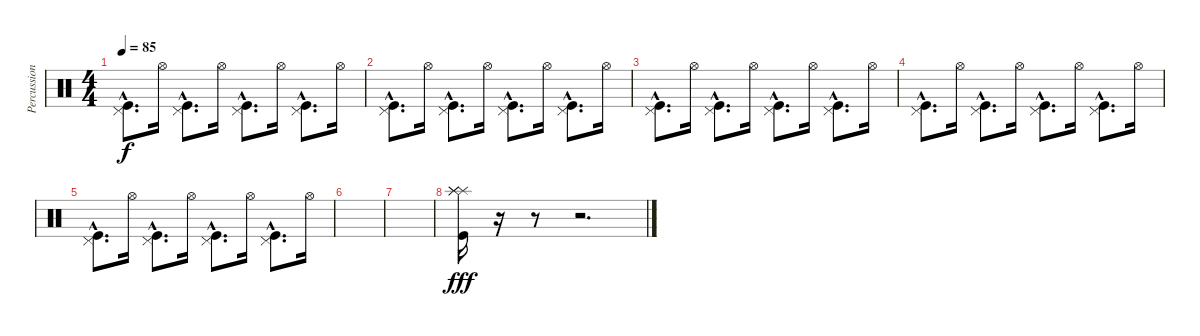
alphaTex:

\track ("Percussions" "Percussion") {instrument percussion}
\staff {score}
\articulation defaults
\ts (4 4)
\tempo 85
\clef neutral
\ks c
("Pedal Hi-Hat (hit)"{hac} "Kick (hit)"{hac}).8{d dy f} "Hi-Hat (open)".16 ("Pedal Hi-Hat (hit)"{hac} "Kick (hit)"{hac}).8{d} "Hi-Hat (open)".16 ("Pedal Hi-Hat (hit)"{hac} "Kick (hit)"{hac}).8{d} "Hi-Hat (open)".16 ("Pedal Hi-Hat (hit)"{hac} "Kick (hit)"{hac}).8{d} "Hi-Hat (open)".16 |
("Pedal Hi-Hat (hit)"{hac} "Kick (hit)"{hac}).8{d} "Hi-Hat (open)".16 ("Pedal Hi-Hat (hit)"{hac} "Kick (hit)"{hac}).8{d} "Hi-Hat (open)".16 ("Pedal Hi-Hat (hit)"{hac} "Kick (hit)"{hac}).8{d} "Hi-Hat (open)".16 ("Pedal Hi-Hat (hit)"{hac} "Kick (hit)"{hac}).8{d} "Hi-Hat (open)".16 |
("Pedal Hi-Hat (hit)"{hac} "Kick (hit)"{hac}).8{d} "Hi-Hat (open)".16 ("Pedal Hi-Hat (hit)"{hac} "Kick (hit)"{hac}).8{d} "Hi-Hat (open)".16 ("Pedal Hi-Hat (hit)"{hac} "Kick (hit)"{hac}).8{d} "Hi-Hat (open)".16 ("Pedal Hi-Hat (hit)"{hac} "Kick (hit)"{hac}).8{d} "Hi-Hat (open)".16 |
("Pedal Hi-Hat (hit)"{hac} "Kick (hit)"{hac}).8{d} "Hi-Hat (open)".16 ("Pedal Hi-Hat (hit)"{hac} "Kick (hit)"{hac}).8{d} "Hi-Hat (open)".16 ("Pedal Hi-Hat (hit)"{hac} "Kick (hit)"{hac}).8{d} "Hi-Hat (open)".16 ("Pedal Hi-Hat (hit)"{hac} "Kick (hit)"{hac}).8{d} "Hi-Hat (open)".16 |
("Pedal Hi-Hat (hit)"{hac} "Kick (hit)"{hac}).8{d} "Hi-Hat (open)".16 ("Pedal Hi-Hat (hit)"{hac} "Kick (hit)"{hac}).8{d} "Hi-Hat (open)".16 ("Pedal Hi-Hat (hit)"{hac} "Kick (hit)"{hac}).8{d} "Hi-Hat (open)".16 ("Pedal Hi-Hat (hit)"{hac} "Kick (hit)"{hac}).8{d} "Hi-Hat (open)".16 |
|
|
("Splash (hit)" "Splash (hit)" "Splash (hit)" "Kick (hit)").16{dy fff} r.16 r.8 r.2{d}
